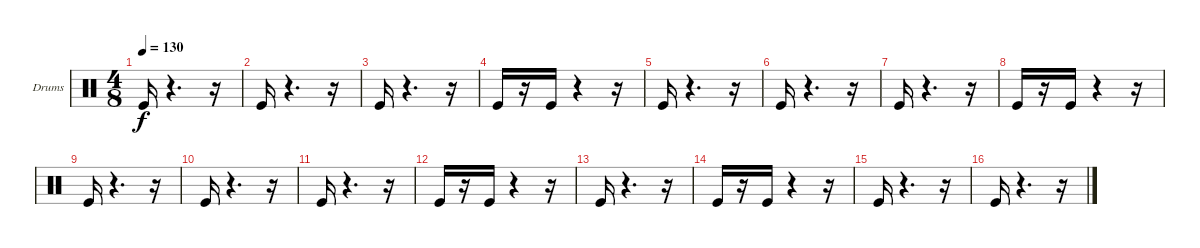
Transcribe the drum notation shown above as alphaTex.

\bracketExtendMode groupsimilarinstruments
\firstSystemTrackNameOrientation horizontal
\otherSystemsTrackNameOrientation horizontal
\track ("Ударные" "Drums") {instrument percussion}
\staff {score}
\articulation defaults
\ts (4 8)
\tempo 130
\clef neutral
\ks c "Kick (hit)".16{dy f}
r.4{d} r.16 |
"Kick (hit)".16 r.4{d} r.16 |
"Kick (hit)".16 r.4{d} r.16 |
"Kick (hit)".16 r.16 "Kick (hit)".16 r.4 r.16 |
"Kick (hit)".16 r.4{d} r.16 |
"Kick (hit)".16 r.4{d} r.16 |
"Kick (hit)".16 r.4{d} r.16 |
"Kick (hit)".16 r.16 "Kick (hit)".16 r.4 r.16 |
"Kick (hit)".16 r.4{d} r.16 |
"Kick (hit)".16 r.4{d} r.16 |
"Kick (hit)".16 r.4{d} r.16 |
"Kick (hit)".16 r.16 "Kick (hit)".16 r.4 r.16 |
"Kick (hit)".16 r.4{d} r.16 |
"Kick (hit)".16 r.16 "Kick (hit)".16 r.4 r.16 |
"Kick (hit)".16 r.4{d} r.16 |
"Kick (hit)".16 r.4{d} r.16
